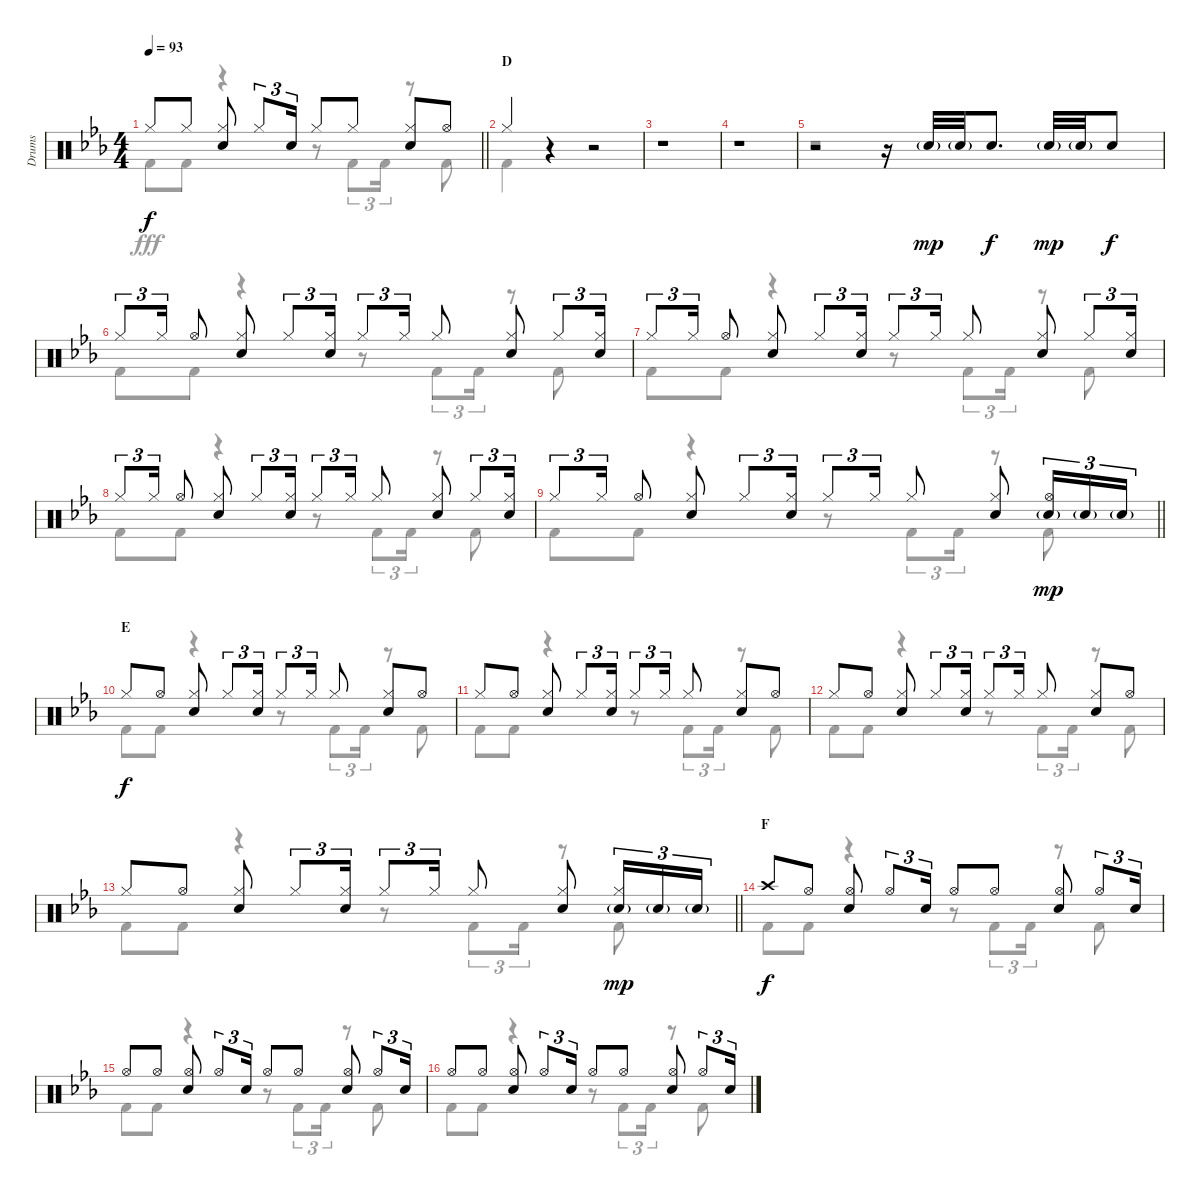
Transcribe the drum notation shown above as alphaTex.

\track ("Drums" "Drums") {instrument percussion}
\staff {score}
\articulation defaults
\voice
\ts (4 4)
\tempo 93
\clef neutral
\barLineRight lightlight
\ks eb "Hi-Hat (closed)".8{dy f} "Hi-Hat (closed)".8
("Hi-Hat (closed)" "Snare (hit) 2").8 "Hi-Hat (closed)".8{tu (3 2)} "Snare (hit) 2".16{tu (3 2)} "Hi-Hat (closed)".8 "Hi-Hat (closed)".8 ("Hi-Hat (closed)" "Snare (hit) 2").8 "Hi-Hat (open)".8 |
\section ("" "D")
"Hi-Hat (closed)".4 r.4 r.2 |
r.1 |
r.1 |
r.2 r.16 "Snare (hit) 2"{g}.32{dy mp} "Snare (hit) 2"{g}.32 "Snare (hit) 2".8{d dy f} "Snare (hit) 2"{g}.32{dy mp} "Snare (hit) 2"{g}.32 "Snare (hit) 2".8{dy f} |
"Hi-Hat (closed)".8{tu (3 2)} "Hi-Hat (closed)".16{tu (3 2)} "Hi-Hat (open)".8 ("Hi-Hat (closed)" "Snare (hit) 2").8 "Hi-Hat (closed)".8{tu (3 2)} ("Hi-Hat (closed)" "Snare (hit) 2").16{tu (3 2)} "Hi-Hat (closed)".8{tu (3 2)} "Hi-Hat (closed)".16{tu (3 2)} "Hi-Hat (closed)".8 ("Hi-Hat (closed)" "Snare (hit) 2").8 "Hi-Hat (closed)".8{tu (3 2)} ("Hi-Hat (closed)" "Snare (hit) 2").16{tu (3 2)} |
"Hi-Hat (closed)".8{tu (3 2)} "Hi-Hat (closed)".16{tu (3 2)} "Hi-Hat (open)".8 ("Hi-Hat (closed)" "Snare (hit) 2").8 "Hi-Hat (closed)".8{tu (3 2)} ("Hi-Hat (closed)" "Snare (hit) 2").16{tu (3 2)} "Hi-Hat (closed)".8{tu (3 2)} "Hi-Hat (closed)".16{tu (3 2)} "Hi-Hat (closed)".8 ("Hi-Hat (closed)" "Snare (hit) 2").8 "Hi-Hat (closed)".8{tu (3 2)} ("Hi-Hat (closed)" "Snare (hit) 2").16{tu (3 2)} |
"Hi-Hat (closed)".8{tu (3 2)} "Hi-Hat (closed)".16{tu (3 2)} "Hi-Hat (open)".8 ("Hi-Hat (closed)" "Snare (hit) 2").8 "Hi-Hat (closed)".8{tu (3 2)} ("Hi-Hat (closed)" "Snare (hit) 2").16{tu (3 2)} "Hi-Hat (closed)".8{tu (3 2)} "Hi-Hat (closed)".16{tu (3 2)} "Hi-Hat (closed)".8 ("Hi-Hat (closed)" "Snare (hit) 2").8 "Hi-Hat (closed)".8{tu (3 2)} ("Hi-Hat (closed)" "Snare (hit) 2").16{tu (3 2)} |
\barLineRight lightlight "Hi-Hat (closed)".8{tu (3 2)} "Hi-Hat (closed)".16{tu (3 2)} "Hi-Hat (open)".8
("Hi-Hat (closed)" "Snare (hit) 2").8 "Hi-Hat (closed)".8{tu (3 2)} ("Hi-Hat (closed)" "Snare (hit) 2").16{tu (3 2)} "Hi-Hat (closed)".8{tu (3 2)} "Hi-Hat (closed)".16{tu (3 2)} "Hi-Hat (closed)".8 ("Hi-Hat (closed)" "Snare (hit) 2").8 ("Hi-Hat (open)" "Snare (hit) 2"{g}).16{tu (3 2) dy mp} "Snare (hit) 2"{g}.16{tu (3 2)} "Snare (hit) 2"{g}.16{tu (3 2)} |
\section ("" "E")
"Hi-Hat (closed)".8{dy f} "Hi-Hat (open)".8 ("Hi-Hat (closed)" "Snare (hit) 2").8 "Hi-Hat (closed)".8{tu (3 2)} ("Hi-Hat (closed)" "Snare (hit) 2").16{tu (3 2)} "Hi-Hat (closed)".8{tu (3 2)} "Hi-Hat (closed)".16{tu (3 2)} "Hi-Hat (closed)".8 ("Hi-Hat (closed)" "Snare (hit) 2").8 "Hi-Hat (open)".8 |
"Hi-Hat (closed)".8 "Hi-Hat (open)".8 ("Hi-Hat (closed)" "Snare (hit) 2").8 "Hi-Hat (closed)".8{tu (3 2)} ("Hi-Hat (closed)" "Snare (hit) 2").16{tu (3 2)} "Hi-Hat (closed)".8{tu (3 2)} "Hi-Hat (closed)".16{tu (3 2)} "Hi-Hat (closed)".8 ("Hi-Hat (closed)" "Snare (hit) 2").8 "Hi-Hat (open)".8 |
"Hi-Hat (closed)".8 "Hi-Hat (open)".8 ("Hi-Hat (closed)" "Snare (hit) 2").8 "Hi-Hat (closed)".8{tu (3 2)} ("Hi-Hat (closed)" "Snare (hit) 2").16{tu (3 2)} "Hi-Hat (closed)".8{tu (3 2)} "Hi-Hat (closed)".16{tu (3 2)} "Hi-Hat (closed)".8 ("Hi-Hat (closed)" "Snare (hit) 2").8 "Hi-Hat (open)".8 |
\barLineRight lightlight "Hi-Hat (closed)".8 "Hi-Hat (open)".8
("Hi-Hat (closed)" "Snare (hit) 2").8 "Hi-Hat (closed)".8{tu (3 2)} ("Hi-Hat (closed)" "Snare (hit) 2").16{tu (3 2)} "Hi-Hat (closed)".8{tu (3 2)} "Hi-Hat (closed)".16{tu (3 2)} "Hi-Hat (closed)".8 ("Hi-Hat (closed)" "Snare (hit) 2").8 ("Hi-Hat (closed)" "Snare (hit) 2"{g}).16{tu (3 2) dy mp} "Snare (hit) 2"{g}.16{tu (3 2)} "Snare (hit) 2"{g}.16{tu (3 2)} |
\section ("" "F")
"Crash high (hit)".8{dy f} "Hi-Hat (open)".8 ("Hi-Hat (open)" "Snare (hit) 2").8 "Hi-Hat (open)".8{tu (3 2)} "Snare (hit) 2".16{tu (3 2)} "Hi-Hat (open)".8 "Hi-Hat (open)".8 ("Hi-Hat (open)" "Snare (hit) 2").8 "Hi-Hat (open)".8{tu (3 2)} "Snare (hit) 2".16{tu (3 2)} |
"Hi-Hat (open)".8 "Hi-Hat (open)".8 ("Hi-Hat (open)" "Snare (hit) 2").8 "Hi-Hat (open)".8{tu (3 2)} "Snare (hit) 2".16{tu (3 2)} "Hi-Hat (open)".8 "Hi-Hat (open)".8 ("Hi-Hat (open)" "Snare (hit) 2").8 "Hi-Hat (open)".8{tu (3 2)} "Snare (hit) 2".16{tu (3 2)} |
"Hi-Hat (open)".8 "Hi-Hat (open)".8 ("Hi-Hat (open)" "Snare (hit) 2").8 "Hi-Hat (open)".8{tu (3 2)} "Snare (hit) 2".16{tu (3 2)} "Hi-Hat (open)".8 "Hi-Hat (open)".8 ("Hi-Hat (open)" "Snare (hit) 2").8 "Hi-Hat (open)".8{tu (3 2)} "Snare (hit) 2".16{tu (3 2)}
\voice
\clef neutral
\ottava regular
\simile none
\barLineRight lightlight
\ks eb "Kick (hit) 2".8{dy fff} "Kick (hit) 2".8
r.4 r.8 "Kick (hit) 2".8{tu (3 2)} "Kick (hit) 2".16{tu (3 2)} r.8 "Kick (hit) 2".8 |
"Kick (hit) 2".4 r.4 r.2 |
r.1 |
r.1 |
r.1 |
"Kick (hit) 2".8 "Kick (hit) 2".8 r.4 r.8 "Kick (hit) 2".8{tu (3 2)} "Kick (hit) 2".16{tu (3 2)} r.8 "Kick (hit) 2".8 |
"Kick (hit) 2".8 "Kick (hit) 2".8 r.4 r.8 "Kick (hit) 2".8{tu (3 2)} "Kick (hit) 2".16{tu (3 2)} r.8 "Kick (hit) 2".8 |
"Kick (hit) 2".8 "Kick (hit) 2".8 r.4 r.8 "Kick (hit) 2".8{tu (3 2)} "Kick (hit) 2".16{tu (3 2)} r.8 "Kick (hit) 2".8 |
\barLineRight lightlight "Kick (hit) 2".8 "Kick (hit) 2".8
r.4 r.8 "Kick (hit) 2".8{tu (3 2)} "Kick (hit) 2".16{tu (3 2)} r.8 "Kick (hit) 2".8 |
"Kick (hit) 2".8 "Kick (hit) 2".8 r.4 r.8 "Kick (hit) 2".8{tu (3 2)} "Kick (hit) 2".16{tu (3 2)} r.8 "Kick (hit) 2".8 |
"Kick (hit) 2".8 "Kick (hit) 2".8 r.4 r.8 "Kick (hit) 2".8{tu (3 2)} "Kick (hit) 2".16{tu (3 2)} r.8 "Kick (hit) 2".8 |
"Kick (hit) 2".8 "Kick (hit) 2".8 r.4 r.8 "Kick (hit) 2".8{tu (3 2)} "Kick (hit) 2".16{tu (3 2)} r.8 "Kick (hit) 2".8 |
\barLineRight lightlight "Kick (hit) 2".8 "Kick (hit) 2".8
r.4 r.8 "Kick (hit) 2".8{tu (3 2)} "Kick (hit) 2".16{tu (3 2)} r.8 "Kick (hit) 2".8 |
"Kick (hit) 2".8 "Kick (hit) 2".8 r.4 r.8 "Kick (hit) 2".8{tu (3 2)} "Kick (hit) 2".16{tu (3 2)} r.8 "Kick (hit) 2".8 |
"Kick (hit) 2".8 "Kick (hit) 2".8 r.4 r.8 "Kick (hit) 2".8{tu (3 2)} "Kick (hit) 2".16{tu (3 2)} r.8 "Kick (hit) 2".8 |
"Kick (hit) 2".8 "Kick (hit) 2".8 r.4 r.8 "Kick (hit) 2".8{tu (3 2)} "Kick (hit) 2".16{tu (3 2)} r.8 "Kick (hit) 2".8
